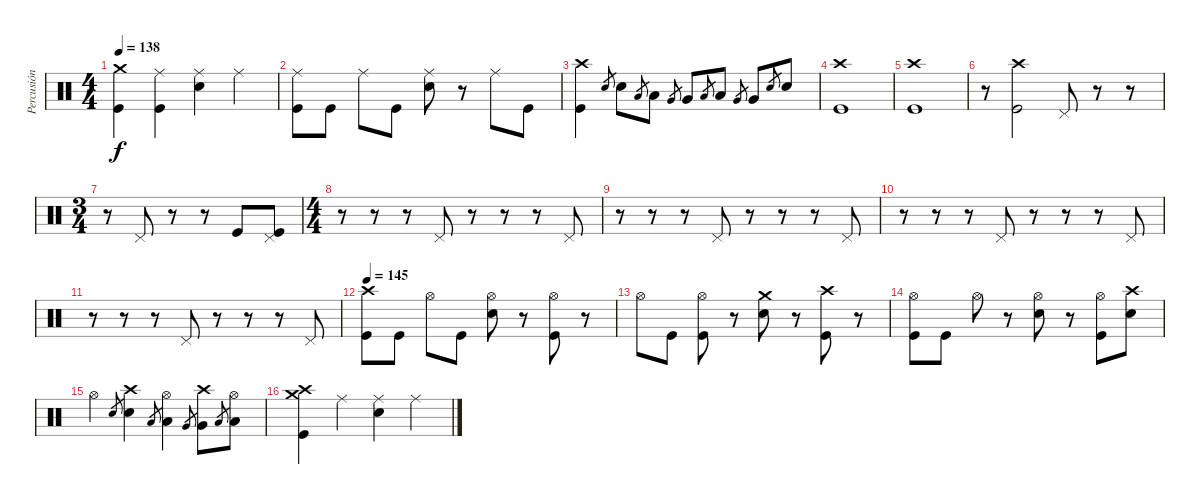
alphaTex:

\track ("Percusión" "Percusión") {instrument percussion}
\staff {score}
\articulation defaults
\ts (4 4)
\tempo 138
\clef neutral
\ks c
("Crash medium (hit)" "Kick (hit)").4{dy f} ("Ride (middle)" "Kick (hit)").4 ("Ride (middle)" "Electric Snare (hit)").4 "Ride (middle)".4 |
("Ride (middle)" "Kick (hit)").8 "Kick (hit)".8 "Ride (middle)".8 "Kick (hit)".8 ("Ride (middle)" "Electric Snare (hit)").8 r.8 "Ride (middle)".8 "Kick (hit)".8 |
("Crash high (hit)" "Kick (hit)").4 "Electric Snare (hit)".8{gr} "Electric Snare (hit)".8 "Low Tom (hit)".8{gr} "Low Tom (hit)".8 "Very Low Tom (hit)".8{gr} "Very Low Tom (hit)".8 "Low Floor Tom (hit)".8{gr} "Low Floor Tom (hit)".8 "Very Low Tom (hit)".8{gr} "Very Low Tom (hit)".8 "Electric Snare (hit)".8{gr} "Electric Snare (hit)".8 |
("Crash high (hit)" "Kick (hit)").1 |
("Crash high (hit)" "Kick (hit)").1 |
r.8 ("Crash high (hit)" "Kick (hit)").2 "Pedal Hi-Hat (hit)".8 r.8 r.8 |
\ts (3 4)
r.8 "Pedal Hi-Hat (hit)".8 r.8 r.8 "Kick (hit)".8 ("Pedal Hi-Hat (hit)" "Kick (hit)").8 |
\ts (4 4)
r.8 r.8 r.8 "Pedal Hi-Hat (hit)".8 r.8 r.8 r.8 "Pedal Hi-Hat (hit)".8 |
r.8 r.8 r.8 "Pedal Hi-Hat (hit)".8 r.8 r.8 r.8 "Pedal Hi-Hat (hit)".8 |
r.8 r.8 r.8 "Pedal Hi-Hat (hit)".8 r.8 r.8 r.8 "Pedal Hi-Hat (hit)".8 |
r.8 r.8 r.8 "Pedal Hi-Hat (hit)".8 r.8 r.8 r.8 "Pedal Hi-Hat (hit)".8 |
\tempo 145
("Crash high (hit)" "Kick (hit)").8 "Kick (hit)".8 "Hi-Hat (open)".8 "Kick (hit)".8 ("Hi-Hat (open)" "Electric Snare (hit)").8 r.8 ("Hi-Hat (open)" "Kick (hit)").8 r.8 |
"Hi-Hat (open)".8 "Kick (hit)".8 ("Hi-Hat (open)" "Kick (hit)").8 r.8 ("Crash medium (hit)" "Electric Snare (hit)").8 r.8 ("Crash high (hit)" "Kick (hit)").8 r.8 |
("Hi-Hat (open)" "Kick (hit)").8 "Kick (hit)".8 "Hi-Hat (open)".8 r.8 ("Hi-Hat (open)" "Electric Snare (hit)").8 r.8 ("Hi-Hat (open)" "Kick (hit)").8 ("Crash high (hit)" "Electric Snare (hit)").8 |
"Hi-Hat (open)".4 "Electric Snare (hit)".8{gr} ("Crash high (hit)" "Electric Snare (hit)").4 "Low Tom (hit)".8{gr} ("Hi-Hat (open)" "Low Tom (hit)").4 "Very Low Tom (hit)".8{gr} ("Crash high (hit)" "Very Low Tom (hit)").8 "Low Floor Tom (hit)".8{gr} ("Hi-Hat (open)" "Low Floor Tom (hit)").8 |
("Crash high (hit)" "Crash medium (hit)" "Kick (hit)").4 "Ride (middle)".4 ("Ride (middle)" "Electric Snare (hit)").4 "Ride (middle)".4
